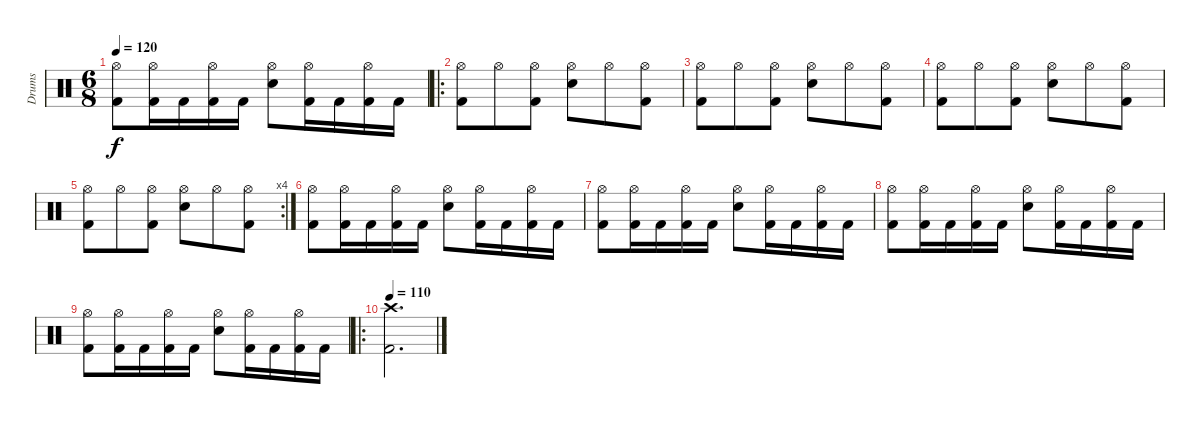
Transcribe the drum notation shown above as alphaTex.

\track ("Drums" "Drums") {instrument percussion}
\staff {score}
\articulation defaults
\ts (6 8)
\tempo 120
\clef neutral
\ks c
("Hi-Hat (open)" "Kick (hit) 2").8{dy f} ("Hi-Hat (open)" "Kick (hit) 2").16 "Kick (hit) 2".16 ("Hi-Hat (open)" "Kick (hit) 2").16 "Kick (hit) 2".16 ("Hi-Hat (open)" "Electric Snare (hit)").8 ("Hi-Hat (open)" "Kick (hit) 2").16 "Kick (hit) 2".16 ("Hi-Hat (open)" "Kick (hit) 2").16 "Kick (hit) 2".16 |
\ro
("Hi-Hat (open)" "Kick (hit) 2").8 "Hi-Hat (open)".8 ("Hi-Hat (open)" "Kick (hit) 2").8 ("Hi-Hat (open)" "Electric Snare (hit)").8 "Hi-Hat (open)".8 ("Hi-Hat (open)" "Kick (hit) 2").8 |
("Hi-Hat (open)" "Kick (hit) 2").8 "Hi-Hat (open)".8 ("Hi-Hat (open)" "Kick (hit) 2").8 ("Hi-Hat (open)" "Electric Snare (hit)").8 "Hi-Hat (open)".8 ("Hi-Hat (open)" "Kick (hit) 2").8 |
("Hi-Hat (open)" "Kick (hit) 2").8 "Hi-Hat (open)".8 ("Hi-Hat (open)" "Kick (hit) 2").8 ("Hi-Hat (open)" "Electric Snare (hit)").8 "Hi-Hat (open)".8 ("Hi-Hat (open)" "Kick (hit) 2").8 |
\rc 4
("Hi-Hat (open)" "Kick (hit) 2").8 "Hi-Hat (open)".8 ("Hi-Hat (open)" "Kick (hit) 2").8 ("Hi-Hat (open)" "Electric Snare (hit)").8 "Hi-Hat (open)".8 ("Hi-Hat (open)" "Kick (hit) 2").8 |
("Hi-Hat (open)" "Kick (hit) 2").8 ("Hi-Hat (open)" "Kick (hit) 2").16 "Kick (hit) 2".16 ("Hi-Hat (open)" "Kick (hit) 2").16 "Kick (hit) 2".16 ("Hi-Hat (open)" "Electric Snare (hit)").8 ("Hi-Hat (open)" "Kick (hit) 2").16 "Kick (hit) 2".16 ("Hi-Hat (open)" "Kick (hit) 2").16 "Kick (hit) 2".16 |
("Hi-Hat (open)" "Kick (hit) 2").8 ("Hi-Hat (open)" "Kick (hit) 2").16 "Kick (hit) 2".16 ("Hi-Hat (open)" "Kick (hit) 2").16 "Kick (hit) 2".16 ("Hi-Hat (open)" "Electric Snare (hit)").8 ("Hi-Hat (open)" "Kick (hit) 2").16 "Kick (hit) 2".16 ("Hi-Hat (open)" "Kick (hit) 2").16 "Kick (hit) 2".16 |
("Hi-Hat (open)" "Kick (hit) 2").8 ("Hi-Hat (open)" "Kick (hit) 2").16 "Kick (hit) 2".16 ("Hi-Hat (open)" "Kick (hit) 2").16 "Kick (hit) 2".16 ("Hi-Hat (open)" "Electric Snare (hit)").8 ("Hi-Hat (open)" "Kick (hit) 2").16 "Kick (hit) 2".16 ("Hi-Hat (open)" "Kick (hit) 2").16 "Kick (hit) 2".16 |
("Hi-Hat (open)" "Kick (hit) 2").8 ("Hi-Hat (open)" "Kick (hit) 2").16 "Kick (hit) 2".16 ("Hi-Hat (open)" "Kick (hit) 2").16 "Kick (hit) 2".16 ("Hi-Hat (open)" "Electric Snare (hit)").8 ("Hi-Hat (open)" "Kick (hit) 2").16 "Kick (hit) 2".16 ("Hi-Hat (open)" "Kick (hit) 2").16 "Kick (hit) 2".16 |
\ro
\tempo 110
("Crash high (hit)" "Kick (hit) 2").2{d}
